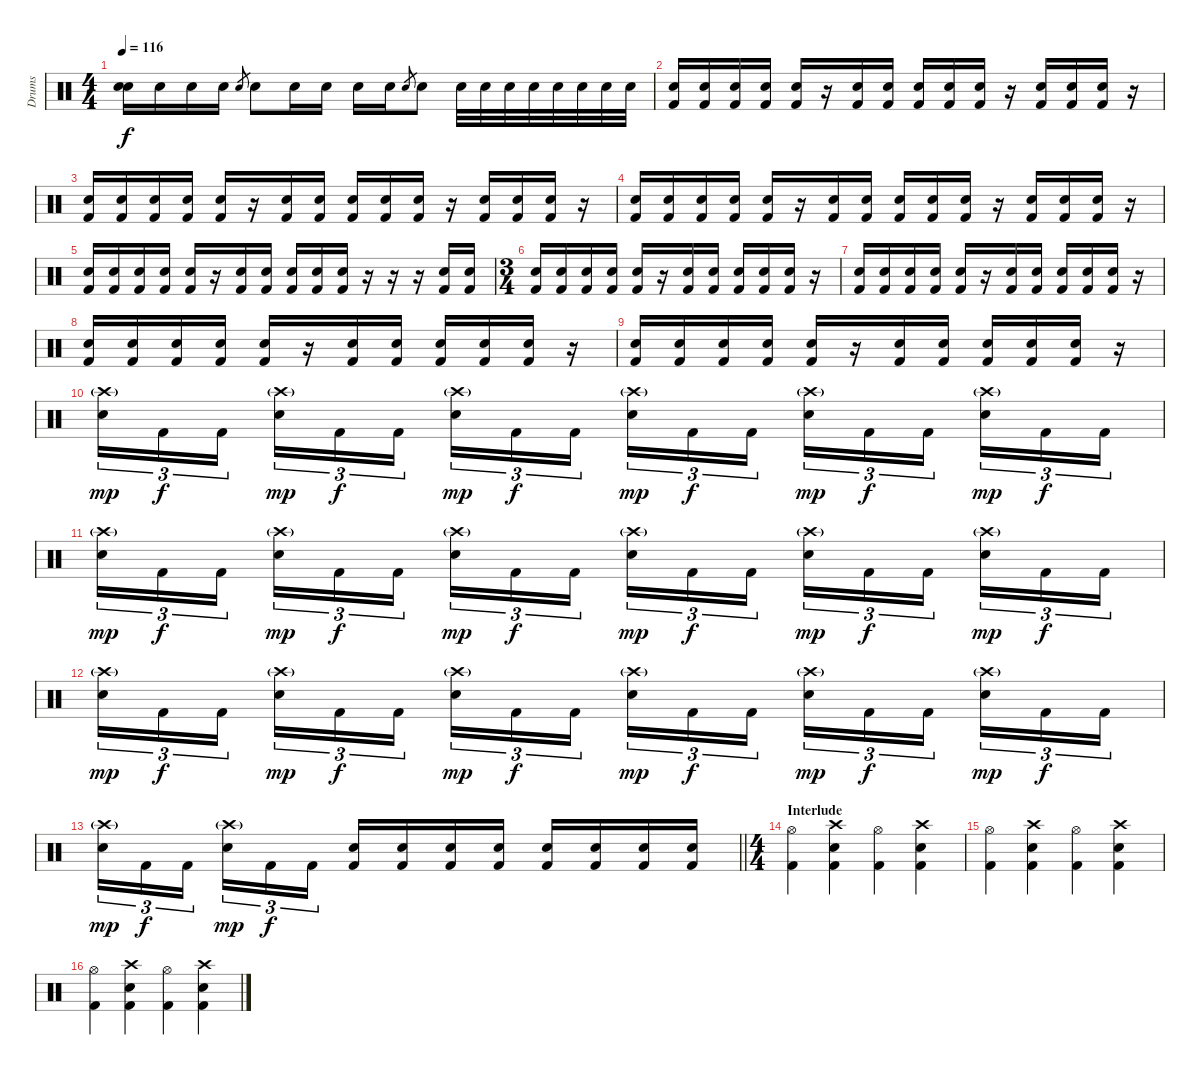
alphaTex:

\track ("Drums" "Drums") {instrument percussion}
\staff {score}
\articulation defaults
\ts (4 4)
\tempo 116
\clef neutral
\ks c
("Electric Snare (hit)" "Electric Snare (hit)").16{dy f} "Electric Snare (hit)".16 "Electric Snare (hit)".16 "Electric Snare (hit)".16 "Electric Snare (hit)".8{gr} "Electric Snare (hit)".8 "Electric Snare (hit)".16 "Electric Snare (hit)".16 "Electric Snare (hit)".16 "Electric Snare (hit)".16 "Electric Snare (hit)".8{gr} "Electric Snare (hit)".8 "Electric Snare (hit)".32 "Electric Snare (hit)".32 "Electric Snare (hit)".32 "Electric Snare (hit)".32 "Electric Snare (hit)".32 "Electric Snare (hit)".32 "Electric Snare (hit)".32 "Electric Snare (hit)".32 |
("Electric Snare (hit)" "Kick (hit) 2").16 ("Electric Snare (hit)" "Kick (hit) 2").16 ("Electric Snare (hit)" "Kick (hit) 2").16 ("Electric Snare (hit)" "Kick (hit) 2").16 ("Electric Snare (hit)" "Kick (hit) 2").16 r.16 ("Electric Snare (hit)" "Kick (hit) 2").16 ("Electric Snare (hit)" "Kick (hit) 2").16 ("Electric Snare (hit)" "Kick (hit) 2").16 ("Electric Snare (hit)" "Kick (hit) 2").16 ("Electric Snare (hit)" "Kick (hit) 2").16 r.16 ("Electric Snare (hit)" "Kick (hit) 2").16 ("Electric Snare (hit)" "Kick (hit) 2").16 ("Electric Snare (hit)" "Kick (hit) 2").16 r.16 |
("Electric Snare (hit)" "Kick (hit) 2").16 ("Electric Snare (hit)" "Kick (hit) 2").16 ("Electric Snare (hit)" "Kick (hit) 2").16 ("Electric Snare (hit)" "Kick (hit) 2").16 ("Electric Snare (hit)" "Kick (hit) 2").16 r.16 ("Electric Snare (hit)" "Kick (hit) 2").16 ("Electric Snare (hit)" "Kick (hit) 2").16 ("Electric Snare (hit)" "Kick (hit) 2").16 ("Electric Snare (hit)" "Kick (hit) 2").16 ("Electric Snare (hit)" "Kick (hit) 2").16 r.16 ("Electric Snare (hit)" "Kick (hit) 2").16 ("Electric Snare (hit)" "Kick (hit) 2").16 ("Electric Snare (hit)" "Kick (hit) 2").16 r.16 |
("Electric Snare (hit)" "Kick (hit) 2").16 ("Electric Snare (hit)" "Kick (hit) 2").16 ("Electric Snare (hit)" "Kick (hit) 2").16 ("Electric Snare (hit)" "Kick (hit) 2").16 ("Electric Snare (hit)" "Kick (hit) 2").16 r.16 ("Electric Snare (hit)" "Kick (hit) 2").16 ("Electric Snare (hit)" "Kick (hit) 2").16 ("Electric Snare (hit)" "Kick (hit) 2").16 ("Electric Snare (hit)" "Kick (hit) 2").16 ("Electric Snare (hit)" "Kick (hit) 2").16 r.16 ("Electric Snare (hit)" "Kick (hit) 2").16 ("Electric Snare (hit)" "Kick (hit) 2").16 ("Electric Snare (hit)" "Kick (hit) 2").16 r.16 |
("Electric Snare (hit)" "Kick (hit) 2").16 ("Electric Snare (hit)" "Kick (hit) 2").16 ("Electric Snare (hit)" "Kick (hit) 2").16 ("Electric Snare (hit)" "Kick (hit) 2").16 ("Electric Snare (hit)" "Kick (hit) 2").16 r.16 ("Electric Snare (hit)" "Kick (hit) 2").16 ("Electric Snare (hit)" "Kick (hit) 2").16 ("Electric Snare (hit)" "Kick (hit) 2").16 ("Electric Snare (hit)" "Kick (hit) 2").16 ("Electric Snare (hit)" "Kick (hit) 2").16 r.16 r.16 r.16 ("Electric Snare (hit)" "Kick (hit) 2").16 ("Electric Snare (hit)" "Kick (hit) 2").16 |
\ts (3 4)
("Electric Snare (hit)" "Kick (hit) 2").16 ("Electric Snare (hit)" "Kick (hit) 2").16 ("Electric Snare (hit)" "Kick (hit) 2").16 ("Electric Snare (hit)" "Kick (hit) 2").16 ("Electric Snare (hit)" "Kick (hit) 2").16 r.16 ("Electric Snare (hit)" "Kick (hit) 2").16 ("Electric Snare (hit)" "Kick (hit) 2").16 ("Electric Snare (hit)" "Kick (hit) 2").16 ("Electric Snare (hit)" "Kick (hit) 2").16 ("Electric Snare (hit)" "Kick (hit) 2").16 r.16 |
("Electric Snare (hit)" "Kick (hit) 2").16 ("Electric Snare (hit)" "Kick (hit) 2").16 ("Electric Snare (hit)" "Kick (hit) 2").16 ("Electric Snare (hit)" "Kick (hit) 2").16 ("Electric Snare (hit)" "Kick (hit) 2").16 r.16 ("Electric Snare (hit)" "Kick (hit) 2").16 ("Electric Snare (hit)" "Kick (hit) 2").16 ("Electric Snare (hit)" "Kick (hit) 2").16 ("Electric Snare (hit)" "Kick (hit) 2").16 ("Electric Snare (hit)" "Kick (hit) 2").16 r.16 |
("Electric Snare (hit)" "Kick (hit) 2").16 ("Electric Snare (hit)" "Kick (hit) 2").16 ("Electric Snare (hit)" "Kick (hit) 2").16 ("Electric Snare (hit)" "Kick (hit) 2").16 ("Electric Snare (hit)" "Kick (hit) 2").16 r.16 ("Electric Snare (hit)" "Kick (hit) 2").16 ("Electric Snare (hit)" "Kick (hit) 2").16 ("Electric Snare (hit)" "Kick (hit) 2").16 ("Electric Snare (hit)" "Kick (hit) 2").16 ("Electric Snare (hit)" "Kick (hit) 2").16 r.16 |
("Electric Snare (hit)" "Kick (hit) 2").16 ("Electric Snare (hit)" "Kick (hit) 2").16 ("Electric Snare (hit)" "Kick (hit) 2").16 ("Electric Snare (hit)" "Kick (hit) 2").16 ("Electric Snare (hit)" "Kick (hit) 2").16 r.16 ("Electric Snare (hit)" "Kick (hit) 2").16 ("Electric Snare (hit)" "Kick (hit) 2").16 ("Electric Snare (hit)" "Kick (hit) 2").16 ("Electric Snare (hit)" "Kick (hit) 2").16 ("Electric Snare (hit)" "Kick (hit) 2").16 r.16 |
("Electric Snare (hit)" "Crash high (hit)"{g}).16{tu (3 2) dy mp} "Kick (hit) 2".16{tu (3 2) dy f} "Kick (hit) 2".16{tu (3 2) beam splitsecondary} ("Electric Snare (hit)" "Crash high (hit)"{g}).16{tu (3 2) dy mp} "Kick (hit) 2".16{tu (3 2) dy f} "Kick (hit) 2".16{tu (3 2)} ("Electric Snare (hit)" "Crash high (hit)"{g}).16{tu (3 2) dy mp} "Kick (hit) 2".16{tu (3 2) dy f} "Kick (hit) 2".16{tu (3 2) beam splitsecondary} ("Electric Snare (hit)" "Crash high (hit)"{g}).16{tu (3 2) dy mp} "Kick (hit) 2".16{tu (3 2) dy f} "Kick (hit) 2".16{tu (3 2)} ("Electric Snare (hit)" "Crash high (hit)"{g}).16{tu (3 2) dy mp} "Kick (hit) 2".16{tu (3 2) dy f} "Kick (hit) 2".16{tu (3 2) beam splitsecondary} ("Electric Snare (hit)" "Crash high (hit)"{g}).16{tu (3 2) dy mp} "Kick (hit) 2".16{tu (3 2) dy f} "Kick (hit) 2".16{tu (3 2)} |
("Electric Snare (hit)" "Crash high (hit)"{g}).16{tu (3 2) dy mp} "Kick (hit) 2".16{tu (3 2) dy f} "Kick (hit) 2".16{tu (3 2) beam splitsecondary} ("Electric Snare (hit)" "Crash high (hit)"{g}).16{tu (3 2) dy mp} "Kick (hit) 2".16{tu (3 2) dy f} "Kick (hit) 2".16{tu (3 2)} ("Electric Snare (hit)" "Crash high (hit)"{g}).16{tu (3 2) dy mp} "Kick (hit) 2".16{tu (3 2) dy f} "Kick (hit) 2".16{tu (3 2) beam splitsecondary} ("Electric Snare (hit)" "Crash high (hit)"{g}).16{tu (3 2) dy mp} "Kick (hit) 2".16{tu (3 2) dy f} "Kick (hit) 2".16{tu (3 2)} ("Electric Snare (hit)" "Crash high (hit)"{g}).16{tu (3 2) dy mp} "Kick (hit) 2".16{tu (3 2) dy f} "Kick (hit) 2".16{tu (3 2) beam splitsecondary} ("Electric Snare (hit)" "Crash high (hit)"{g}).16{tu (3 2) dy mp} "Kick (hit) 2".16{tu (3 2) dy f} "Kick (hit) 2".16{tu (3 2)} |
("Electric Snare (hit)" "Crash high (hit)"{g}).16{tu (3 2) dy mp} "Kick (hit) 2".16{tu (3 2) dy f} "Kick (hit) 2".16{tu (3 2) beam splitsecondary} ("Electric Snare (hit)" "Crash high (hit)"{g}).16{tu (3 2) dy mp} "Kick (hit) 2".16{tu (3 2) dy f} "Kick (hit) 2".16{tu (3 2)} ("Electric Snare (hit)" "Crash high (hit)"{g}).16{tu (3 2) dy mp} "Kick (hit) 2".16{tu (3 2) dy f} "Kick (hit) 2".16{tu (3 2) beam splitsecondary} ("Electric Snare (hit)" "Crash high (hit)"{g}).16{tu (3 2) dy mp} "Kick (hit) 2".16{tu (3 2) dy f} "Kick (hit) 2".16{tu (3 2)} ("Electric Snare (hit)" "Crash high (hit)"{g}).16{tu (3 2) dy mp} "Kick (hit) 2".16{tu (3 2) dy f} "Kick (hit) 2".16{tu (3 2) beam splitsecondary} ("Electric Snare (hit)" "Crash high (hit)"{g}).16{tu (3 2) dy mp} "Kick (hit) 2".16{tu (3 2) dy f} "Kick (hit) 2".16{tu (3 2)} |
\barLineRight lightlight
("Electric Snare (hit)" "Crash high (hit)"{g}).16{tu (3 2) dy mp} "Kick (hit) 2".16{tu (3 2) dy f} "Kick (hit) 2".16{tu (3 2) beam splitsecondary} ("Electric Snare (hit)" "Crash high (hit)"{g}).16{tu (3 2) dy mp} "Kick (hit) 2".16{tu (3 2) dy f} "Kick (hit) 2".16{tu (3 2)} ("Electric Snare (hit)" "Kick (hit) 2").16 ("Electric Snare (hit)" "Kick (hit) 2").16 ("Electric Snare (hit)" "Kick (hit) 2").16 ("Electric Snare (hit)" "Kick (hit) 2").16 ("Electric Snare (hit)" "Kick (hit) 2").16 ("Electric Snare (hit)" "Kick (hit) 2").16 ("Electric Snare (hit)" "Kick (hit) 2").16 ("Electric Snare (hit)" "Kick (hit) 2").16 |
\ts (4 4)
\section ("" "Interlude")
("Kick (hit) 2" "Hi-Hat (open)").4 ("Kick (hit) 2" "Electric Snare (hit)" "Crash high (hit)").4 ("Kick (hit) 2" "Hi-Hat (open)").4 ("Kick (hit) 2" "Electric Snare (hit)" "Crash high (hit)").4 |
("Kick (hit) 2" "Hi-Hat (open)").4 ("Kick (hit) 2" "Electric Snare (hit)" "Crash high (hit)").4 ("Kick (hit) 2" "Hi-Hat (open)").4 ("Kick (hit) 2" "Electric Snare (hit)" "Crash high (hit)").4 |
("Kick (hit) 2" "Hi-Hat (open)").4 ("Kick (hit) 2" "Electric Snare (hit)" "Crash high (hit)").4 ("Kick (hit) 2" "Hi-Hat (open)").4 ("Kick (hit) 2" "Electric Snare (hit)" "Crash high (hit)").4
